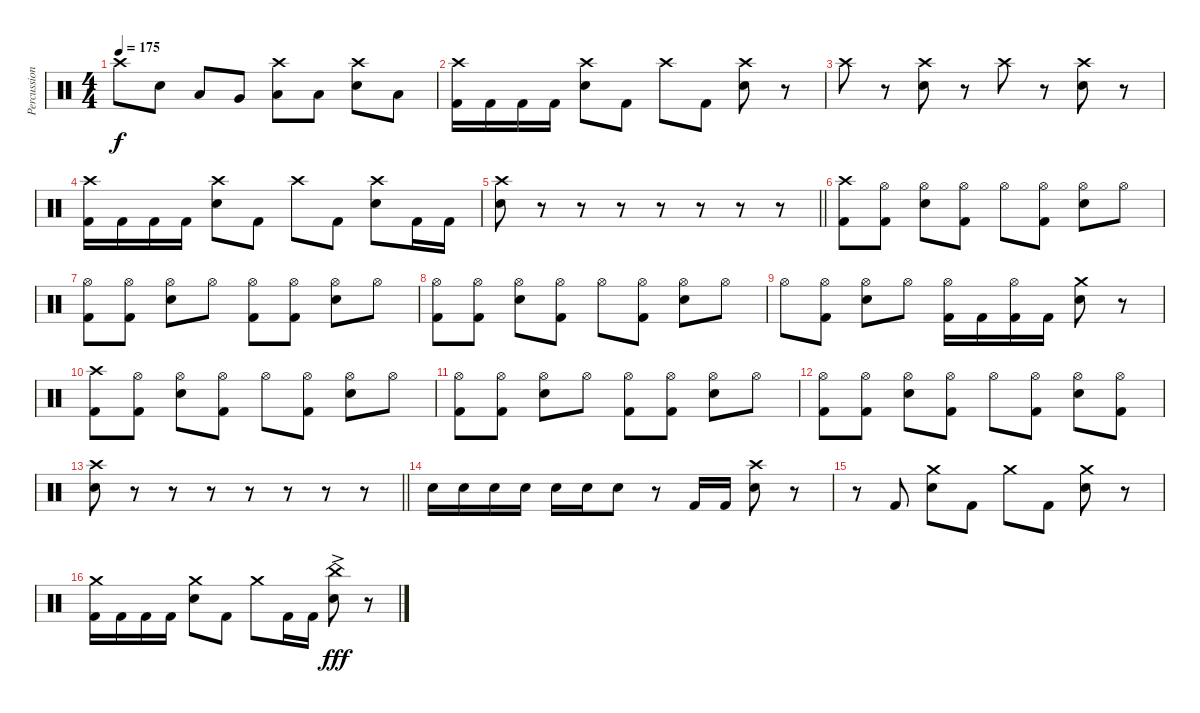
\track ("Percussion (Moose)" "Percussion") {instrument percussion}
\staff {score}
\articulation defaults
\ts (4 4)
\tempo 175
\clef neutral
\ks c "Crash high (hit)".8{dy f} "Electric Snare (hit)".8 "Low Tom (hit)".8 "Very Low Tom (hit)".8
("Crash high (hit)" "Low Floor Tom (hit)").8 "Low Floor Tom (hit)".8 ("Crash high (hit)" "Electric Snare (hit)").8 "Low Floor Tom (hit)".8 |
("Crash high (hit)" "Kick (hit) 2").16 "Kick (hit) 2".16 "Kick (hit) 2".16 "Kick (hit) 2".16 ("Crash high (hit)" "Electric Snare (hit)").8 "Kick (hit) 2".8 "Crash high (hit)".8 "Kick (hit) 2".8 ("Crash high (hit)" "Electric Snare (hit)").8 r.8 |
"Crash high (hit)".8 r.8 ("Crash high (hit)" "Electric Snare (hit)").8 r.8 "Crash high (hit)".8 r.8 ("Crash high (hit)" "Electric Snare (hit)").8 r.8 |
("Crash high (hit)" "Kick (hit) 2").16 "Kick (hit) 2".16 "Kick (hit) 2".16 "Kick (hit) 2".16 ("Crash high (hit)" "Electric Snare (hit)").8 "Kick (hit) 2".8 "Crash high (hit)".8 "Kick (hit) 2".8 ("Crash high (hit)" "Electric Snare (hit)").8 "Kick (hit) 2".16 "Kick (hit) 2".16 |
\barLineRight lightlight
("Crash high (hit)" "Electric Snare (hit)").8 r.8 r.8 r.8 r.8 r.8 r.8 r.8 |
("Crash high (hit)" "Kick (hit) 2").8 ("Hi-Hat (open)" "Kick (hit) 2").8 ("Hi-Hat (open)" "Electric Snare (hit)").8 ("Hi-Hat (open)" "Kick (hit) 2").8 "Hi-Hat (open)".8 ("Hi-Hat (open)" "Kick (hit) 2").8 ("Hi-Hat (open)" "Electric Snare (hit)").8 "Hi-Hat (open)".8 |
("Hi-Hat (open)" "Kick (hit) 2").8 ("Hi-Hat (open)" "Kick (hit) 2").8 ("Hi-Hat (open)" "Electric Snare (hit)").8 "Hi-Hat (open)".8 ("Hi-Hat (open)" "Kick (hit) 2").8 ("Hi-Hat (open)" "Kick (hit) 2").8 ("Hi-Hat (open)" "Electric Snare (hit)").8 "Hi-Hat (open)".8 |
("Hi-Hat (open)" "Kick (hit) 2").8 ("Hi-Hat (open)" "Kick (hit) 2").8 ("Hi-Hat (open)" "Electric Snare (hit)").8 ("Hi-Hat (open)" "Kick (hit) 2").8 "Hi-Hat (open)".8 ("Hi-Hat (open)" "Kick (hit) 2").8 ("Hi-Hat (open)" "Electric Snare (hit)").8 "Hi-Hat (open)".8 |
"Hi-Hat (open)".8 ("Hi-Hat (open)" "Kick (hit) 2").8 ("Hi-Hat (open)" "Electric Snare (hit)").8 "Hi-Hat (open)".8 ("Hi-Hat (open)" "Kick (hit) 2").16 "Kick (hit) 2".16 ("Hi-Hat (open)" "Kick (hit) 2").16 "Kick (hit) 2".16 ("Crash medium (hit)" "Electric Snare (hit)").8 r.8 |
("Crash high (hit)" "Kick (hit) 2").8 ("Hi-Hat (open)" "Kick (hit) 2").8 ("Hi-Hat (open)" "Electric Snare (hit)").8 ("Hi-Hat (open)" "Kick (hit) 2").8 "Hi-Hat (open)".8 ("Hi-Hat (open)" "Kick (hit) 2").8 ("Hi-Hat (open)" "Electric Snare (hit)").8 "Hi-Hat (open)".8 |
("Hi-Hat (open)" "Kick (hit) 2").8 ("Hi-Hat (open)" "Kick (hit) 2").8 ("Hi-Hat (open)" "Electric Snare (hit)").8 "Hi-Hat (open)".8 ("Hi-Hat (open)" "Kick (hit) 2").8 ("Hi-Hat (open)" "Kick (hit) 2").8 ("Hi-Hat (open)" "Electric Snare (hit)").8 "Hi-Hat (open)".8 |
("Hi-Hat (open)" "Kick (hit) 2").8 ("Hi-Hat (open)" "Kick (hit) 2").8 ("Hi-Hat (open)" "Electric Snare (hit)").8 ("Hi-Hat (open)" "Kick (hit) 2").8 "Hi-Hat (open)".8 ("Hi-Hat (open)" "Kick (hit) 2").8 ("Hi-Hat (open)" "Electric Snare (hit)").8 ("Hi-Hat (open)" "Kick (hit) 2").8 |
\barLineRight lightlight
("Crash high (hit)" "Electric Snare (hit)").8 r.8 r.8 r.8 r.8 r.8 r.8 r.8 |
"Electric Snare (hit)".16 "Electric Snare (hit)".16 "Electric Snare (hit)".16 "Electric Snare (hit)".16 "Electric Snare (hit)".16 "Electric Snare (hit)".16 "Electric Snare (hit)".8 r.8 "Kick (hit) 2".16 "Kick (hit) 2".16 ("Crash high (hit)" "Electric Snare (hit)").8 r.8 |
r.8 "Kick (hit) 2".8 ("Crash medium (hit)" "Electric Snare (hit)").8 "Kick (hit) 2".8 "Crash medium (hit)".8 "Kick (hit) 2".8 ("Crash medium (hit)" "Electric Snare (hit)").8 r.8 |
("Crash medium (hit)" "Kick (hit) 2").16 "Kick (hit) 2".16 "Kick (hit) 2".16 "Kick (hit) 2".16 ("Crash medium (hit)" "Electric Snare (hit)").8 "Kick (hit) 2".8 "Crash medium (hit)".8 "Kick (hit) 2".16 "Kick (hit) 2".16 ("China (hit)"{ac} "Electric Snare (hit)").8{dy fff} r.8
